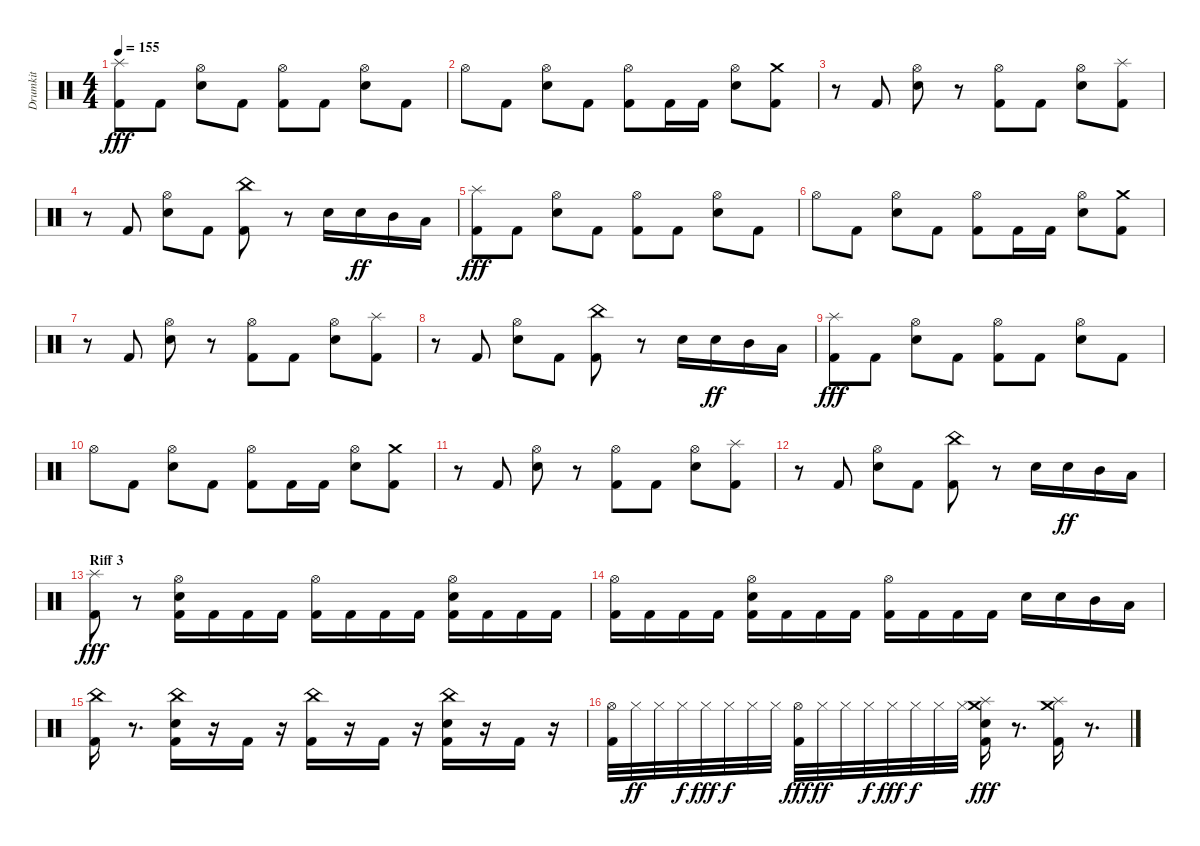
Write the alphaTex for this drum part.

\track ("Drumkit" "Drumkit") {instrument percussion}
\staff {score}
\articulation defaults
\ts (4 4)
\tempo 155
\clef neutral
\ks c
("Kick (hit) 2" "Splash (hit)").8{dy fff} "Kick (hit) 2".8 ("Snare (hit) 2" "Hi-Hat (open)").8 "Kick (hit) 2".8 ("Kick (hit) 2" "Hi-Hat (open)").8 "Kick (hit) 2".8 ("Snare (hit) 2" "Hi-Hat (open)").8 "Kick (hit) 2".8 |
"Hi-Hat (open)".8 "Kick (hit) 2".8 ("Snare (hit) 2" "Hi-Hat (open)").8 "Kick (hit) 2".8 ("Kick (hit) 2" "Hi-Hat (open)").8 "Kick (hit) 2".16 "Kick (hit) 2".16 ("Snare (hit) 2" "Hi-Hat (open)").8 ("Kick (hit) 2" "Crash medium (hit)").8 |
r.8 "Kick (hit) 2".8 ("Snare (hit) 2" "Hi-Hat (open)").8 r.8 ("Kick (hit) 2" "Hi-Hat (open)").8 "Kick (hit) 2".8 ("Snare (hit) 2" "Hi-Hat (open)").8 ("Kick (hit) 2" "Splash (hit)").8 |
r.8 "Kick (hit) 2".8 ("Snare (hit) 2" "Hi-Hat (open)").8 "Kick (hit) 2".8 ("Kick (hit) 2" "China (hit)").8 r.8 "Snare (hit) 2".16 "Snare (hit) 2".16{dy ff} "Mid Tom (hit)".16 "Low Tom (hit)".16 |
("Kick (hit) 2" "Splash (hit)").8{dy fff} "Kick (hit) 2".8 ("Snare (hit) 2" "Hi-Hat (open)").8 "Kick (hit) 2".8 ("Kick (hit) 2" "Hi-Hat (open)").8 "Kick (hit) 2".8 ("Snare (hit) 2" "Hi-Hat (open)").8 "Kick (hit) 2".8 |
"Hi-Hat (open)".8 "Kick (hit) 2".8 ("Snare (hit) 2" "Hi-Hat (open)").8 "Kick (hit) 2".8 ("Kick (hit) 2" "Hi-Hat (open)").8 "Kick (hit) 2".16 "Kick (hit) 2".16 ("Snare (hit) 2" "Hi-Hat (open)").8 ("Kick (hit) 2" "Crash medium (hit)").8 |
r.8 "Kick (hit) 2".8 ("Snare (hit) 2" "Hi-Hat (open)").8 r.8 ("Kick (hit) 2" "Hi-Hat (open)").8 "Kick (hit) 2".8 ("Snare (hit) 2" "Hi-Hat (open)").8 ("Kick (hit) 2" "Splash (hit)").8 |
r.8 "Kick (hit) 2".8 ("Snare (hit) 2" "Hi-Hat (open)").8 "Kick (hit) 2".8 ("Kick (hit) 2" "China (hit)").8 r.8 "Snare (hit) 2".16 "Snare (hit) 2".16{dy ff} "Mid Tom (hit)".16 "Low Tom (hit)".16 |
("Kick (hit) 2" "Splash (hit)").8{dy fff} "Kick (hit) 2".8 ("Snare (hit) 2" "Hi-Hat (open)").8 "Kick (hit) 2".8 ("Kick (hit) 2" "Hi-Hat (open)").8 "Kick (hit) 2".8 ("Snare (hit) 2" "Hi-Hat (open)").8 "Kick (hit) 2".8 |
"Hi-Hat (open)".8 "Kick (hit) 2".8 ("Snare (hit) 2" "Hi-Hat (open)").8 "Kick (hit) 2".8 ("Kick (hit) 2" "Hi-Hat (open)").8 "Kick (hit) 2".16 "Kick (hit) 2".16 ("Snare (hit) 2" "Hi-Hat (open)").8 ("Kick (hit) 2" "Crash medium (hit)").8 |
r.8 "Kick (hit) 2".8 ("Snare (hit) 2" "Hi-Hat (open)").8 r.8 ("Kick (hit) 2" "Hi-Hat (open)").8 "Kick (hit) 2".8 ("Snare (hit) 2" "Hi-Hat (open)").8 ("Kick (hit) 2" "Splash (hit)").8 |
r.8 "Kick (hit) 2".8 ("Snare (hit) 2" "Hi-Hat (open)").8 "Kick (hit) 2".8 ("Kick (hit) 2" "China (hit)").8 r.8 "Snare (hit) 2".16 "Snare (hit) 2".16{dy ff} "Mid Tom (hit)".16 "Low Tom (hit)".16 |
\section ("" "Riff 3")
("Kick (hit) 2" "Splash (hit)").8{dy fff} r.8 ("Kick (hit) 2" "Snare (hit) 2" "Hi-Hat (open)").16 "Kick (hit) 2".16 "Kick (hit) 2".16 "Kick (hit) 2".16 ("Kick (hit) 2" "Hi-Hat (open)").16 "Kick (hit) 2".16 "Kick (hit) 2".16 "Kick (hit) 2".16 ("Kick (hit) 2" "Snare (hit) 2" "Hi-Hat (open)").16 "Kick (hit) 2".16 "Kick (hit) 2".16 "Kick (hit) 2".16 |
("Kick (hit) 2" "Hi-Hat (open)").16 "Kick (hit) 2".16 "Kick (hit) 2".16 "Kick (hit) 2".16 ("Kick (hit) 2" "Snare (hit) 2" "Hi-Hat (open)").16 "Kick (hit) 2".16 "Kick (hit) 2".16 "Kick (hit) 2".16 ("Kick (hit) 2" "Hi-Hat (open)").16 "Kick (hit) 2".16 "Kick (hit) 2".16 "Kick (hit) 2".16 "Snare (hit) 2".16 "Snare (hit) 2".16 "Mid Tom (hit)".16 "Low Tom (hit)".16 |
("Kick (hit) 2" "China (hit)").16 r.8{d} ("Kick (hit) 2" "Snare (hit) 2" "China (hit)").16 r.16 "Kick (hit) 2".16 r.16 ("Kick (hit) 2" "China (hit)").16 r.16 "Kick (hit) 2".16 r.16 ("Kick (hit) 2" "Snare (hit) 2" "China (hit)").16 r.16 "Kick (hit) 2".16 r.16 |
("Kick (hit) 2" "Hi-Hat (open)").32 "Hi-Hat (closed)".32{dy ff} "Hi-Hat (closed)".32 "Hi-Hat (closed)".32{dy f} "Hi-Hat (closed)".32{dy fff} "Hi-Hat (closed)".32{dy f} "Hi-Hat (closed)".32 "Hi-Hat (closed)".32 ("Kick (hit) 2" "Hi-Hat (open)").32{dy fff} "Hi-Hat (closed)".32{dy ff} "Hi-Hat (closed)".32 "Hi-Hat (closed)".32{dy f} "Hi-Hat (closed)".32{dy fff} "Hi-Hat (closed)".32{dy f} "Hi-Hat (closed)".32 "Hi-Hat (closed)".32 ("Kick (hit) 2" "Snare (hit) 2" "Splash (hit)" "Crash medium (hit)").16{dy fff} r.8{d} ("Kick (hit) 2" "Splash (hit)" "Crash medium (hit)").16 r.8{d}
